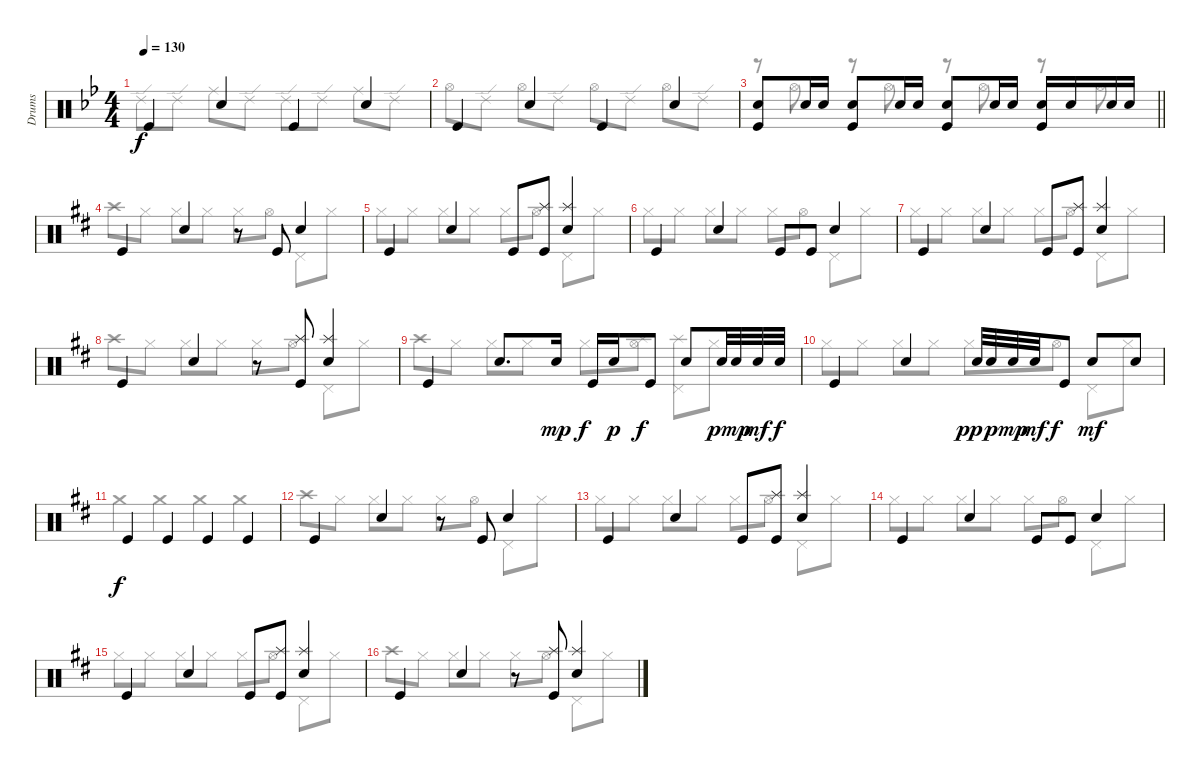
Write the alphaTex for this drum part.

\track ("Drums" "Drums") {instrument percussion}
\staff {score}
\articulation defaults
\voice
\ts (4 4)
\tempo 130
\clef neutral
\ks gminor "Kick (hit)".4{dy f} "Snare (hit) 2".4 "Kick (hit)".4 "Snare (hit) 2".4
|
"Kick (hit)".4 "Snare (hit) 2".4 "Kick (hit)".4 "Snare (hit) 2".4 |
\barLineRight lightlight
("Snare (hit) 2" "Kick (hit)").8 "Snare (hit) 2".16 "Snare (hit) 2".16 ("Snare (hit) 2" "Kick (hit)").8 "Snare (hit) 2".16 "Snare (hit) 2".16 ("Snare (hit) 2" "Kick (hit)").8 "Snare (hit) 2".16 "Snare (hit) 2".16 ("Snare (hit) 2" "Kick (hit)").16 "Snare (hit) 2".16 "Snare (hit) 2".16 "Snare (hit) 2".16 |
\ks d "Kick (hit)".4 "Snare (hit) 2".4
r.8 "Kick (hit)".8 "Snare (hit) 2".4 |
"Kick (hit)".4 "Snare (hit) 2".4 "Kick (hit)".8 ("Splash (hit)" "Kick (hit)").8 ("Splash (hit)" "Snare (hit) 2").4 |
"Kick (hit)".4 "Snare (hit) 2".4 "Kick (hit)".8 "Kick (hit)".8 "Snare (hit) 2".4 |
"Kick (hit)".4 "Snare (hit) 2".4 "Kick (hit)".8 ("Splash (hit)" "Kick (hit)").8 ("Splash (hit)" "Snare (hit) 2").4 |
"Kick (hit)".4 "Snare (hit) 2".4 r.8 ("Splash (hit)" "Kick (hit)").8 ("Splash (hit)" "Snare (hit) 2").4 |
"Kick (hit)".4 "Snare (hit) 2".8{d} "Snare (hit) 2".16{dy mp} "Kick (hit)".16{dy f} "Snare (hit) 2".16{dy p} "Kick (hit)".8{dy f} "Snare (hit) 2".8 "Snare (hit) 2".32{dy p} "Snare (hit) 2".32{dy mp} "Snare (hit) 2".32{dy mf} "Snare (hit) 2".32{dy f} |
"Kick (hit)".4 "Snare (hit) 2".4 "Snare (hit) 2".32{dy pp} "Snare (hit) 2".32{dy p} "Snare (hit) 2".32{dy mp} "Snare (hit) 2".32{dy mf} "Kick (hit)".8{dy f} "Snare (hit) 2".8{dy mf} "Snare (hit) 2".8 |
"Kick (hit)".4{dy f} "Kick (hit)".4 "Kick (hit)".4 "Kick (hit)".4 |
"Kick (hit)".4 "Snare (hit) 2".4 r.8 "Kick (hit)".8 "Snare (hit) 2".4 |
"Kick (hit)".4 "Snare (hit) 2".4 "Kick (hit)".8 ("Splash (hit)" "Kick (hit)").8 ("Splash (hit)" "Snare (hit) 2").4 |
"Kick (hit)".4 "Snare (hit) 2".4 "Kick (hit)".8 "Kick (hit)".8 "Snare (hit) 2".4 |
"Kick (hit)".4 "Snare (hit) 2".4 "Kick (hit)".8 ("Splash (hit)" "Kick (hit)").8 ("Splash (hit)" "Snare (hit) 2").4 |
"Kick (hit)".4 "Snare (hit) 2".4 r.8 ("Splash (hit)" "Kick (hit)").8 ("Splash (hit)" "Snare (hit) 2").4
\voice
\clef neutral
\ottava regular
\simile none
\ks gminor "Ride (edge) 2".8{dy f} "Ride (edge) 2".8 "Ride (middle)".8 "Ride (edge) 2".8 "Ride (edge) 2".8 "Ride (edge) 2".8 "Ride (middle)".8 "Ride (edge) 2".8
|
"Hi-Hat (open)".8 "Ride (edge) 2".8 "Hi-Hat (open)".8 "Ride (edge) 2".8 "Hi-Hat (open)".8 "Ride (edge) 2".8 "Hi-Hat (open)".8 "Ride (edge) 2".8 |
\barLineRight lightlight
r.8 "Hi-Hat (open)".8 r.8 "Hi-Hat (open)".8 r.8 "Hi-Hat (open)".8 r.8 "Hi-Hat (open)".8 |
\ks d "Crash high (hit)".8 "Hi-Hat (closed)".8 "Hi-Hat (closed)".8 "Hi-Hat (closed)".8 "Hi-Hat (closed)".8 "Hi-Hat (open)".8 "Pedal Hi-Hat (hit)".8 "Hi-Hat (closed)".8
|
"Hi-Hat (closed)".8 "Hi-Hat (closed)".8 "Hi-Hat (closed)".8 "Hi-Hat (closed)".8 "Hi-Hat (closed)".8 "Hi-Hat (open)".8 "Pedal Hi-Hat (hit)".8 "Hi-Hat (closed)".8 |
"Hi-Hat (closed)".8 "Hi-Hat (closed)".8 "Hi-Hat (closed)".8 "Hi-Hat (closed)".8 "Hi-Hat (closed)".8 "Hi-Hat (open)".8 "Pedal Hi-Hat (hit)".8 "Hi-Hat (closed)".8 |
"Hi-Hat (closed)".8 "Hi-Hat (closed)".8 "Hi-Hat (closed)".8 "Hi-Hat (closed)".8 "Hi-Hat (closed)".8 "Hi-Hat (open)".8 "Pedal Hi-Hat (hit)".8 "Hi-Hat (closed)".8 |
"Crash high (hit)".8 "Hi-Hat (closed)".8 "Hi-Hat (closed)".8 "Hi-Hat (closed)".8 "Hi-Hat (closed)".8 "Hi-Hat (open)".8 "Pedal Hi-Hat (hit)".8 "Hi-Hat (closed)".8 |
"Crash high (hit)".8 "Hi-Hat (closed)".8 "Hi-Hat (closed)".8 "Hi-Hat (closed)".8 "Hi-Hat (closed)".8 ("Hi-Hat (open)" "Splash (hit)").8 ("Pedal Hi-Hat (hit)" "Splash (hit)").8 "Hi-Hat (closed)".8 |
"Hi-Hat (closed)".8 "Hi-Hat (closed)".8 "Hi-Hat (closed)".8 "Hi-Hat (closed)".8 "Hi-Hat (closed)".8 "Hi-Hat (open)".8 "Pedal Hi-Hat (hit)".8 "Hi-Hat (closed)".8 |
"Crash medium (hit)".4 "Crash medium (hit)".4 "Crash medium (hit)".4 "Crash medium (hit)".4 |
"Crash high (hit)".8 "Hi-Hat (closed)".8 "Hi-Hat (closed)".8 "Hi-Hat (closed)".8 "Hi-Hat (closed)".8 "Hi-Hat (open)".8 "Pedal Hi-Hat (hit)".8 "Hi-Hat (closed)".8 |
"Hi-Hat (closed)".8 "Hi-Hat (closed)".8 "Hi-Hat (closed)".8 "Hi-Hat (closed)".8 "Hi-Hat (closed)".8 "Hi-Hat (open)".8 "Pedal Hi-Hat (hit)".8 "Hi-Hat (closed)".8 |
"Hi-Hat (closed)".8 "Hi-Hat (closed)".8 "Hi-Hat (closed)".8 "Hi-Hat (closed)".8 "Hi-Hat (closed)".8 "Hi-Hat (open)".8 "Pedal Hi-Hat (hit)".8 "Hi-Hat (closed)".8 |
"Hi-Hat (closed)".8 "Hi-Hat (closed)".8 "Hi-Hat (closed)".8 "Hi-Hat (closed)".8 "Hi-Hat (closed)".8 "Hi-Hat (open)".8 "Pedal Hi-Hat (hit)".8 "Hi-Hat (closed)".8 |
"Crash high (hit)".8 "Hi-Hat (closed)".8 "Hi-Hat (closed)".8 "Hi-Hat (closed)".8 "Hi-Hat (closed)".8 "Hi-Hat (open)".8 "Pedal Hi-Hat (hit)".8 "Hi-Hat (closed)".8
